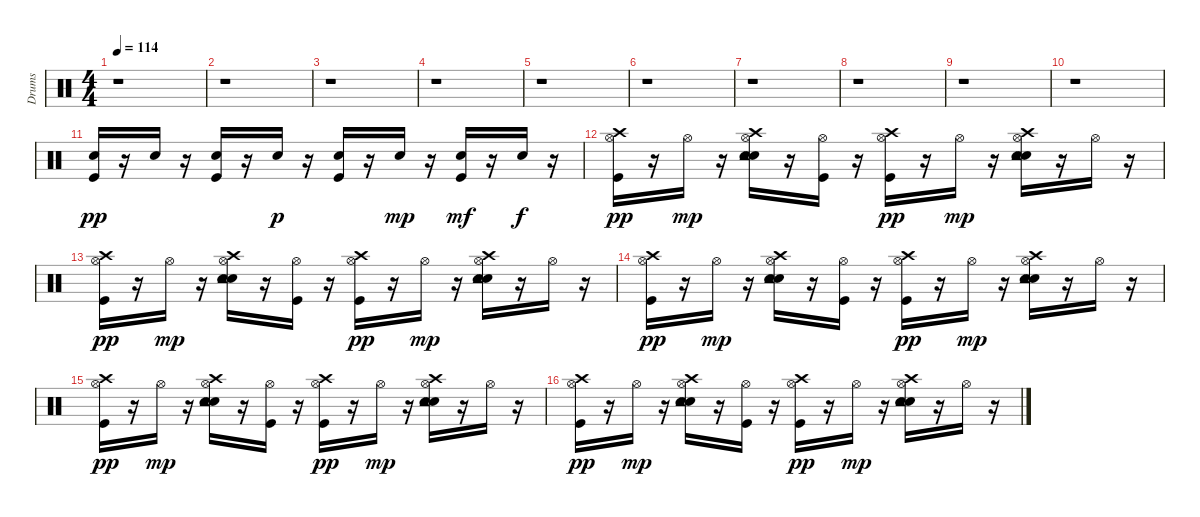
\track ("Drums" "Drums") {instrument percussion}
\staff {score}
\articulation defaults
\ts (4 4)
\tempo 114
\clef neutral
\ks c
r.1{dy pp} |
r.1 |
r.1 |
r.1 |
r.1 |
r.1 |
r.1 |
r.1 |
r.1 |
r.1 |
("Kick (hit)" "Electric Snare (hit)").16 r.16 "Electric Snare (hit)".16 r.16 ("Electric Snare (hit)" "Kick (hit)").16 r.16 "Electric Snare (hit)".16{dy p} r.16 ("Electric Snare (hit)" "Kick (hit)").16 r.16 "Electric Snare (hit)".16{dy mp} r.16 ("Kick (hit)" "Electric Snare (hit)").16{dy mf} r.16 "Electric Snare (hit)".16{dy f} r.16 |
("Kick (hit)" "Hi-Hat (open)" "Crash high (hit)").16{dy pp} r.16 "Hi-Hat (open)".16{dy mp} r.16 ("Metronome (bell)" "Electric Snare (hit)" "Hi-Hat (open)" "Crash high (hit)" "Tambourine (hit)").16 r.16 ("Kick (hit)" "Hi-Hat (open)").16 r.16 ("Kick (hit)" "Hi-Hat (open)" "Crash high (hit)").16{dy pp} r.16 "Hi-Hat (open)".16{dy mp} r.16 ("Metronome (bell)" "Electric Snare (hit)" "Hi-Hat (open)" "Crash high (hit)" "Tambourine (hit)").16 r.16 "Hi-Hat (open)".16 r.16 |
("Kick (hit)" "Hi-Hat (open)" "Crash high (hit)").16{dy pp} r.16 "Hi-Hat (open)".16{dy mp} r.16 ("Metronome (bell)" "Electric Snare (hit)" "Hi-Hat (open)" "Crash high (hit)" "Tambourine (hit)").16 r.16 ("Kick (hit)" "Hi-Hat (open)").16 r.16 ("Kick (hit)" "Hi-Hat (open)" "Crash high (hit)").16{dy pp} r.16 "Hi-Hat (open)".16{dy mp} r.16 ("Metronome (bell)" "Electric Snare (hit)" "Hi-Hat (open)" "Crash high (hit)" "Tambourine (hit)").16 r.16 "Hi-Hat (open)".16 r.16 |
("Kick (hit)" "Hi-Hat (open)" "Crash high (hit)").16{dy pp} r.16 "Hi-Hat (open)".16{dy mp} r.16 ("Metronome (bell)" "Electric Snare (hit)" "Hi-Hat (open)" "Crash high (hit)" "Tambourine (hit)").16 r.16 ("Kick (hit)" "Hi-Hat (open)").16 r.16 ("Kick (hit)" "Hi-Hat (open)" "Crash high (hit)").16{dy pp} r.16 "Hi-Hat (open)".16{dy mp} r.16 ("Metronome (bell)" "Electric Snare (hit)" "Hi-Hat (open)" "Crash high (hit)" "Tambourine (hit)").16 r.16 "Hi-Hat (open)".16 r.16 |
("Kick (hit)" "Hi-Hat (open)" "Crash high (hit)").16{dy pp} r.16 "Hi-Hat (open)".16{dy mp} r.16 ("Metronome (bell)" "Electric Snare (hit)" "Hi-Hat (open)" "Crash high (hit)" "Tambourine (hit)").16 r.16 ("Kick (hit)" "Hi-Hat (open)").16 r.16 ("Kick (hit)" "Hi-Hat (open)" "Crash high (hit)").16{dy pp} r.16 "Hi-Hat (open)".16{dy mp} r.16 ("Metronome (bell)" "Electric Snare (hit)" "Hi-Hat (open)" "Crash high (hit)" "Tambourine (hit)").16 r.16 "Hi-Hat (open)".16 r.16 |
("Kick (hit)" "Hi-Hat (open)" "Crash high (hit)").16{dy pp} r.16 "Hi-Hat (open)".16{dy mp} r.16 ("Metronome (bell)" "Electric Snare (hit)" "Hi-Hat (open)" "Crash high (hit)" "Tambourine (hit)").16 r.16 ("Kick (hit)" "Hi-Hat (open)").16 r.16 ("Kick (hit)" "Hi-Hat (open)" "Crash high (hit)").16{dy pp} r.16 "Hi-Hat (open)".16{dy mp} r.16 ("Metronome (bell)" "Electric Snare (hit)" "Hi-Hat (open)" "Crash high (hit)" "Tambourine (hit)").16 r.16 "Hi-Hat (open)".16 r.16
